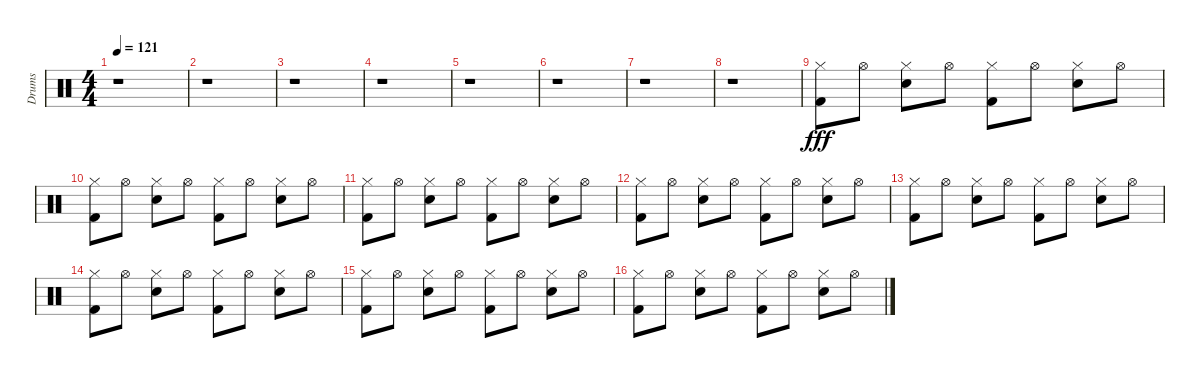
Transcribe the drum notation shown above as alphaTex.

\track ("Drums" "Drums") {instrument percussion}
\staff {score}
\articulation defaults
\ts (4 4)
\tempo 121
\clef neutral
\ks c
r.1{dy fff} |
r.1 |
r.1 |
r.1 |
r.1 |
r.1 |
r.1 |
r.1 |
("Hi-Hat (closed)" "Kick (hit) 2").8 "Hi-Hat (open)".8 ("Hi-Hat (closed)" "Snare (hit) 2").8 "Hi-Hat (open)".8 ("Hi-Hat (closed)" "Kick (hit) 2").8 "Hi-Hat (open)".8 ("Hi-Hat (closed)" "Snare (hit) 2").8 "Hi-Hat (open)".8 |
("Hi-Hat (closed)" "Kick (hit) 2").8 "Hi-Hat (open)".8 ("Hi-Hat (closed)" "Snare (hit) 2").8 "Hi-Hat (open)".8 ("Hi-Hat (closed)" "Kick (hit) 2").8 "Hi-Hat (open)".8 ("Hi-Hat (closed)" "Snare (hit) 2").8 "Hi-Hat (open)".8 |
("Hi-Hat (closed)" "Kick (hit) 2").8 "Hi-Hat (open)".8 ("Hi-Hat (closed)" "Snare (hit) 2").8 "Hi-Hat (open)".8 ("Hi-Hat (closed)" "Kick (hit) 2").8 "Hi-Hat (open)".8 ("Hi-Hat (closed)" "Snare (hit) 2").8 "Hi-Hat (open)".8 |
("Hi-Hat (closed)" "Kick (hit) 2").8 "Hi-Hat (open)".8 ("Hi-Hat (closed)" "Snare (hit) 2").8 "Hi-Hat (open)".8 ("Hi-Hat (closed)" "Kick (hit) 2").8 "Hi-Hat (open)".8 ("Hi-Hat (closed)" "Snare (hit) 2").8 "Hi-Hat (open)".8 |
("Hi-Hat (closed)" "Kick (hit) 2").8 "Hi-Hat (open)".8 ("Hi-Hat (closed)" "Snare (hit) 2").8 "Hi-Hat (open)".8 ("Hi-Hat (closed)" "Kick (hit) 2").8 "Hi-Hat (open)".8 ("Hi-Hat (closed)" "Snare (hit) 2").8 "Hi-Hat (open)".8 |
("Hi-Hat (closed)" "Kick (hit) 2").8 "Hi-Hat (open)".8 ("Hi-Hat (closed)" "Snare (hit) 2").8 "Hi-Hat (open)".8 ("Hi-Hat (closed)" "Kick (hit) 2").8 "Hi-Hat (open)".8 ("Hi-Hat (closed)" "Snare (hit) 2").8 "Hi-Hat (open)".8 |
("Hi-Hat (closed)" "Kick (hit) 2").8 "Hi-Hat (open)".8 ("Hi-Hat (closed)" "Snare (hit) 2").8 "Hi-Hat (open)".8 ("Hi-Hat (closed)" "Kick (hit) 2").8 "Hi-Hat (open)".8 ("Hi-Hat (closed)" "Snare (hit) 2").8 "Hi-Hat (open)".8 |
("Hi-Hat (closed)" "Kick (hit) 2").8 "Hi-Hat (open)".8 ("Hi-Hat (closed)" "Snare (hit) 2").8 "Hi-Hat (open)".8 ("Hi-Hat (closed)" "Kick (hit) 2").8 "Hi-Hat (open)".8 ("Hi-Hat (closed)" "Snare (hit) 2").8 "Hi-Hat (open)".8
